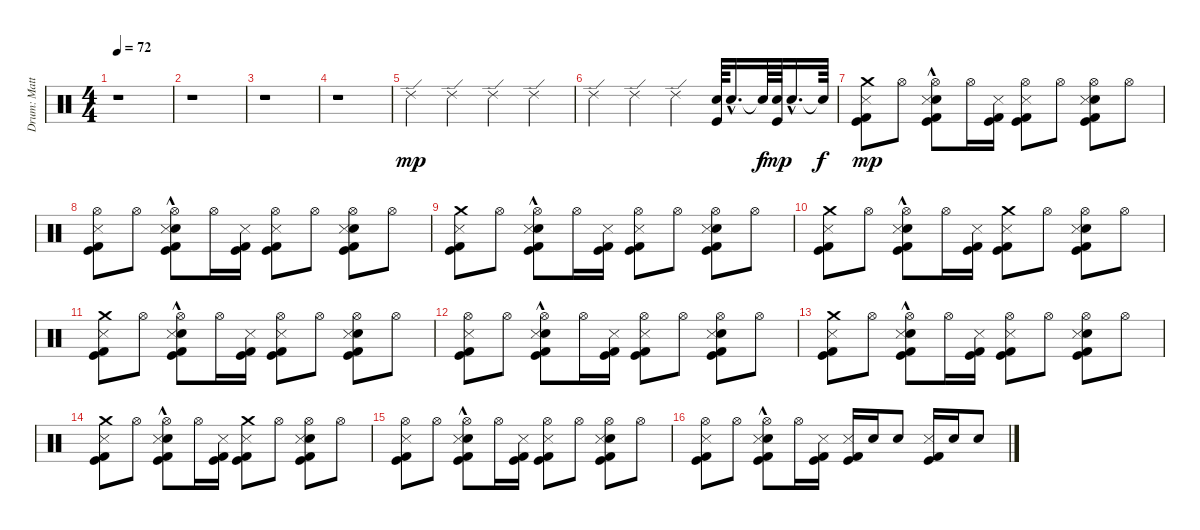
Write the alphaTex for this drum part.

\track ("Drum: Matt" "Drum: Matt") {instrument percussion}
\staff {score}
\articulation defaults
\ts (4 4)
\tempo 72
\clef neutral
\ks c
r.1{dy p} |
r.1 |
r.1 |
r.1 |
"Ride (edge) 2".4{dy mp} "Ride (edge) 2".4 "Ride (edge) 2".4 "Ride (edge) 2".4 |
"Ride (edge) 2".4 "Ride (edge) 2".4 "Ride (edge) 2".4 ("Snare (hit) 2" "Kick (hit)").64 "Snare (hit) 2"{hac}.16{d} "Snare (hit)"{t}.64{dy f} ("Snare (hit) 2" "Kick (hit)").64{dy mp} "Snare (hit) 2"{hac}.16{d} "Snare (hit)"{t}.64{dy f} |
("Crash medium (hit)" "Metronome (hit)" "Kick (hit)" "Kick (hit) 2").8{dy mp} "Hi-Hat (open)".8 ("Snare (hit) 2" "Hi-Hat (open)" "Metronome (hit)"{hac} "Kick (hit)"{hac} "Kick (hit) 2"{hac}).8 "Hi-Hat (open)".16 ("Metronome (hit)" "Kick (hit)" "Kick (hit) 2").16 ("Hi-Hat (open)" "Metronome (hit)" "Kick (hit)" "Kick (hit) 2").8 "Hi-Hat (open)".8 ("Snare (hit) 2" "Hi-Hat (open)" "Metronome (hit)" "Kick (hit)" "Kick (hit) 2").8 "Hi-Hat (open)".8 |
("Hi-Hat (open)" "Metronome (hit)" "Kick (hit)" "Kick (hit) 2").8 "Hi-Hat (open)".8 ("Snare (hit) 2" "Hi-Hat (open)" "Metronome (hit)"{hac} "Kick (hit)"{hac} "Kick (hit) 2"{hac}).8 "Hi-Hat (open)".16 ("Metronome (hit)" "Kick (hit)" "Kick (hit) 2").16 ("Hi-Hat (open)" "Metronome (hit)" "Kick (hit)" "Kick (hit) 2").8 "Hi-Hat (open)".8 ("Snare (hit) 2" "Hi-Hat (open)" "Metronome (hit)" "Kick (hit)" "Kick (hit) 2").8 "Hi-Hat (open)".8 |
("Crash medium (hit)" "Metronome (hit)" "Kick (hit)" "Kick (hit) 2").8 "Hi-Hat (open)".8 ("Snare (hit) 2" "Hi-Hat (open)" "Metronome (hit)"{hac} "Kick (hit)"{hac} "Kick (hit) 2"{hac}).8 "Hi-Hat (open)".16 ("Metronome (hit)" "Kick (hit)" "Kick (hit) 2").16 ("Hi-Hat (open)" "Metronome (hit)" "Kick (hit)" "Kick (hit) 2").8 "Hi-Hat (open)".8 ("Snare (hit) 2" "Hi-Hat (open)" "Metronome (hit)" "Kick (hit)" "Kick (hit) 2").8 "Hi-Hat (open)".8 |
("Crash medium (hit)" "Metronome (hit)" "Kick (hit)" "Kick (hit) 2").8 "Hi-Hat (open)".8 ("Snare (hit) 2" "Hi-Hat (open)" "Metronome (hit)"{hac} "Kick (hit)"{hac} "Kick (hit) 2"{hac}).8 "Hi-Hat (open)".16 ("Metronome (hit)" "Kick (hit)" "Kick (hit) 2").16 ("Crash medium (hit)" "Metronome (hit)" "Kick (hit)" "Kick (hit) 2").8 "Hi-Hat (open)".8 ("Snare (hit) 2" "Hi-Hat (open)" "Metronome (hit)" "Kick (hit)" "Kick (hit) 2").8 "Hi-Hat (open)".8 |
("Crash medium (hit)" "Metronome (hit)" "Kick (hit)" "Kick (hit) 2").8 "Hi-Hat (open)".8 ("Snare (hit) 2" "Hi-Hat (open)" "Metronome (hit)"{hac} "Kick (hit)"{hac} "Kick (hit) 2"{hac}).8 "Hi-Hat (open)".16 ("Metronome (hit)" "Kick (hit)" "Kick (hit) 2").16 ("Hi-Hat (open)" "Metronome (hit)" "Kick (hit)" "Kick (hit) 2").8 "Hi-Hat (open)".8 ("Snare (hit) 2" "Hi-Hat (open)" "Metronome (hit)" "Kick (hit)" "Kick (hit) 2").8 "Hi-Hat (open)".8 |
("Hi-Hat (open)" "Metronome (hit)" "Kick (hit)" "Kick (hit) 2").8 "Hi-Hat (open)".8 ("Snare (hit) 2" "Hi-Hat (open)" "Metronome (hit)"{hac} "Kick (hit)"{hac} "Kick (hit) 2"{hac}).8 "Hi-Hat (open)".16 ("Metronome (hit)" "Kick (hit)" "Kick (hit) 2").16 ("Hi-Hat (open)" "Metronome (hit)" "Kick (hit)" "Kick (hit) 2").8 "Hi-Hat (open)".8 ("Snare (hit) 2" "Hi-Hat (open)" "Metronome (hit)" "Kick (hit)" "Kick (hit) 2").8 "Hi-Hat (open)".8 |
("Crash medium (hit)" "Metronome (hit)" "Kick (hit)" "Kick (hit) 2").8 "Hi-Hat (open)".8 ("Snare (hit) 2" "Hi-Hat (open)" "Metronome (hit)"{hac} "Kick (hit)"{hac} "Kick (hit) 2"{hac}).8 "Hi-Hat (open)".16 ("Metronome (hit)" "Kick (hit)" "Kick (hit) 2").16 ("Hi-Hat (open)" "Metronome (hit)" "Kick (hit)" "Kick (hit) 2").8 "Hi-Hat (open)".8 ("Snare (hit) 2" "Hi-Hat (open)" "Metronome (hit)" "Kick (hit)" "Kick (hit) 2").8 "Hi-Hat (open)".8 |
("Crash medium (hit)" "Metronome (hit)" "Kick (hit)" "Kick (hit) 2").8 "Hi-Hat (open)".8 ("Snare (hit) 2" "Hi-Hat (open)" "Metronome (hit)"{hac} "Kick (hit)"{hac} "Kick (hit) 2"{hac}).8 "Hi-Hat (open)".16 ("Metronome (hit)" "Kick (hit)" "Kick (hit) 2").16 ("Crash medium (hit)" "Metronome (hit)" "Kick (hit)" "Kick (hit) 2").8 "Hi-Hat (open)".8 ("Snare (hit) 2" "Hi-Hat (open)" "Metronome (hit)" "Kick (hit)" "Kick (hit) 2").8 "Hi-Hat (open)".8 |
("Hi-Hat (open)" "Metronome (hit)" "Kick (hit)" "Kick (hit) 2").8 "Hi-Hat (open)".8 ("Snare (hit) 2" "Hi-Hat (open)" "Metronome (hit)"{hac} "Kick (hit)"{hac} "Kick (hit) 2"{hac}).8 "Hi-Hat (open)".16 ("Metronome (hit)" "Kick (hit)" "Kick (hit) 2").16 ("Hi-Hat (open)" "Metronome (hit)" "Kick (hit)" "Kick (hit) 2").8 "Hi-Hat (open)".8 ("Snare (hit) 2" "Hi-Hat (open)" "Metronome (hit)" "Kick (hit)" "Kick (hit) 2").8 "Hi-Hat (open)".8 |
("Hi-Hat (open)" "Metronome (hit)" "Kick (hit)" "Kick (hit) 2").8 "Hi-Hat (open)".8 ("Snare (hit) 2" "Hi-Hat (open)" "Metronome (hit)"{hac} "Kick (hit)"{hac} "Kick (hit) 2"{hac}).8 "Hi-Hat (open)".16 ("Metronome (hit)" "Kick (hit)" "Kick (hit) 2").16 ("Metronome (hit)" "Kick (hit)" "Kick (hit) 2").16 "Snare (hit) 2".16 "Snare (hit) 2".8 ("Metronome (hit)" "Kick (hit)" "Kick (hit) 2").16 "Snare (hit) 2".16 "Snare (hit) 2".8
